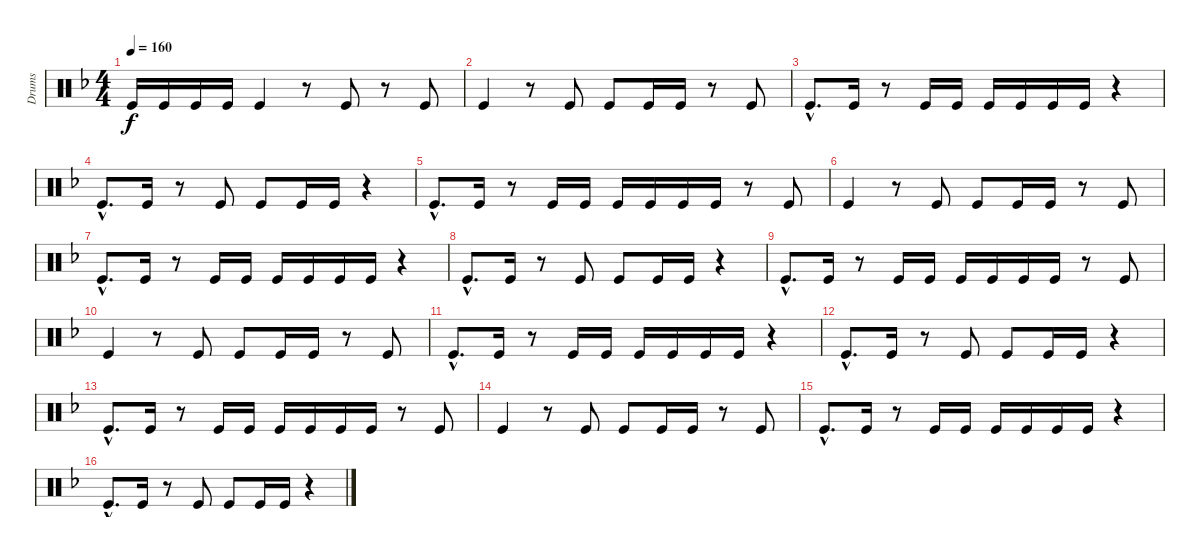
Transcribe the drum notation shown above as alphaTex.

\track ("Drums" "Drums") {instrument percussion}
\staff {score}
\articulation defaults
\ts (4 4)
\tempo 160
\clef neutral
\ks f "Kick (hit)".16{dy f} "Kick (hit)".16 "Kick (hit)".16 "Kick (hit)".16 "Kick (hit)".4
r.8 "Kick (hit)".8 r.8 "Kick (hit)".8 |
"Kick (hit)".4 r.8 "Kick (hit)".8 "Kick (hit)".8 "Kick (hit)".16 "Kick (hit)".16 r.8 "Kick (hit)".8 |
"Kick (hit)"{hac}.8{d} "Kick (hit)".16 r.8 "Kick (hit)".16 "Kick (hit)".16 "Kick (hit)".16 "Kick (hit)".16 "Kick (hit)".16 "Kick (hit)".16 r.4 |
"Kick (hit)"{hac}.8{d} "Kick (hit)".16 r.8 "Kick (hit)".8 "Kick (hit)".8 "Kick (hit)".16 "Kick (hit)".16 r.4 |
"Kick (hit)"{hac}.8{d} "Kick (hit)".16 r.8 "Kick (hit)".16 "Kick (hit)".16 "Kick (hit)".16 "Kick (hit)".16 "Kick (hit)".16 "Kick (hit)".16 r.8 "Kick (hit)".8 |
"Kick (hit)".4 r.8 "Kick (hit)".8 "Kick (hit)".8 "Kick (hit)".16 "Kick (hit)".16 r.8 "Kick (hit)".8 |
"Kick (hit)"{hac}.8{d} "Kick (hit)".16 r.8 "Kick (hit)".16 "Kick (hit)".16 "Kick (hit)".16 "Kick (hit)".16 "Kick (hit)".16 "Kick (hit)".16 r.4 |
"Kick (hit)"{hac}.8{d} "Kick (hit)".16 r.8 "Kick (hit)".8 "Kick (hit)".8 "Kick (hit)".16 "Kick (hit)".16 r.4 |
"Kick (hit)"{hac}.8{d} "Kick (hit)".16 r.8 "Kick (hit)".16 "Kick (hit)".16 "Kick (hit)".16 "Kick (hit)".16 "Kick (hit)".16 "Kick (hit)".16 r.8 "Kick (hit)".8 |
"Kick (hit)".4 r.8 "Kick (hit)".8 "Kick (hit)".8 "Kick (hit)".16 "Kick (hit)".16 r.8 "Kick (hit)".8 |
"Kick (hit)"{hac}.8{d} "Kick (hit)".16 r.8 "Kick (hit)".16 "Kick (hit)".16 "Kick (hit)".16 "Kick (hit)".16 "Kick (hit)".16 "Kick (hit)".16 r.4 |
"Kick (hit)"{hac}.8{d} "Kick (hit)".16 r.8 "Kick (hit)".8 "Kick (hit)".8 "Kick (hit)".16 "Kick (hit)".16 r.4 |
"Kick (hit)"{hac}.8{d} "Kick (hit)".16 r.8 "Kick (hit)".16 "Kick (hit)".16 "Kick (hit)".16 "Kick (hit)".16 "Kick (hit)".16 "Kick (hit)".16 r.8 "Kick (hit)".8 |
"Kick (hit)".4 r.8 "Kick (hit)".8 "Kick (hit)".8 "Kick (hit)".16 "Kick (hit)".16 r.8 "Kick (hit)".8 |
"Kick (hit)"{hac}.8{d} "Kick (hit)".16 r.8 "Kick (hit)".16 "Kick (hit)".16 "Kick (hit)".16 "Kick (hit)".16 "Kick (hit)".16 "Kick (hit)".16 r.4 |
"Kick (hit)"{hac}.8{d} "Kick (hit)".16 r.8 "Kick (hit)".8 "Kick (hit)".8 "Kick (hit)".16 "Kick (hit)".16 r.4
